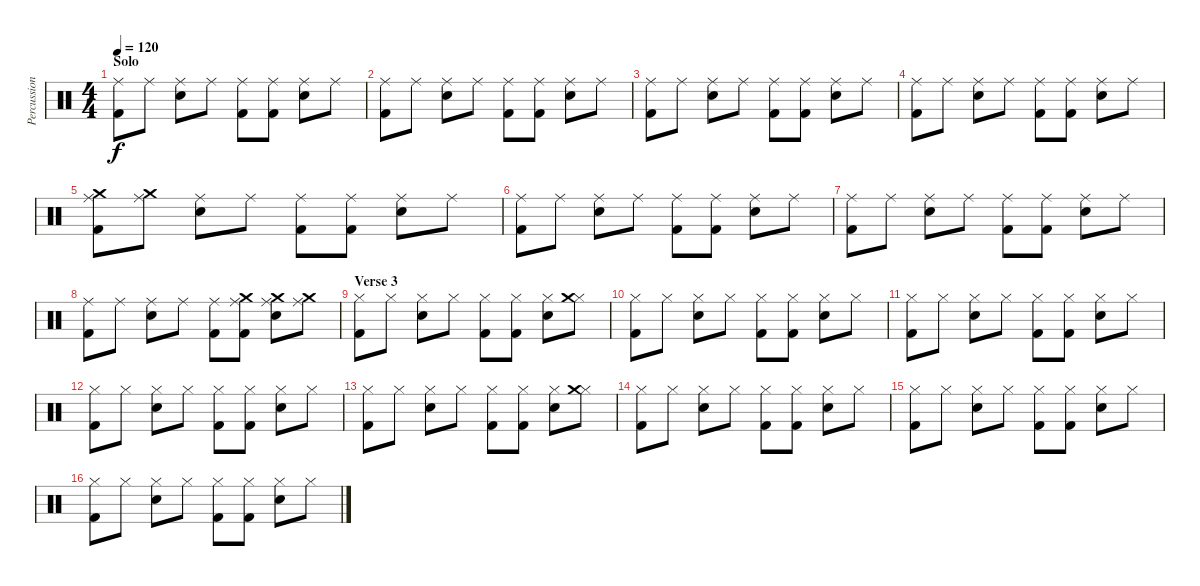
\track ("Percussion" "Percussion") {instrument percussion}
\staff {score}
\articulation defaults
\ts (4 4)
\section ("" "Solo")
\tempo 120
\clef neutral
\ks c
("Ride (middle)" "Kick (hit) 2").8{dy f} "Ride (middle)".8 ("Ride (middle)" "Snare (hit) 2").8 "Ride (middle)".8 ("Ride (middle)" "Kick (hit) 2").8 ("Ride (middle)" "Kick (hit) 2").8 ("Ride (middle)" "Snare (hit) 2").8 "Ride (middle)".8 |
("Ride (middle)" "Kick (hit) 2").8 "Ride (middle)".8 ("Ride (middle)" "Snare (hit) 2").8 "Ride (middle)".8 ("Ride (middle)" "Kick (hit) 2").8 ("Ride (middle)" "Kick (hit) 2").8 ("Ride (middle)" "Snare (hit) 2").8 "Ride (middle)".8 |
("Ride (middle)" "Kick (hit) 2").8 "Ride (middle)".8 ("Ride (middle)" "Snare (hit) 2").8 "Ride (middle)".8 ("Ride (middle)" "Kick (hit) 2").8 ("Ride (middle)" "Kick (hit) 2").8 ("Ride (middle)" "Snare (hit) 2").8 "Ride (middle)".8 |
("Ride (middle)" "Kick (hit) 2").8 "Ride (middle)".8 ("Ride (middle)" "Snare (hit) 2").8 "Ride (middle)".8 ("Ride (middle)" "Kick (hit) 2").8 ("Ride (middle)" "Kick (hit) 2").8 ("Ride (middle)" "Snare (hit) 2").8 "Ride (middle)".8 |
("Ride (middle)" "Kick (hit) 2" "Crash medium (hit)").8 ("Ride (middle)" "Crash medium (hit)").8 ("Ride (middle)" "Snare (hit) 2").8 "Ride (middle)".8 ("Ride (middle)" "Kick (hit) 2").8 ("Ride (middle)" "Kick (hit) 2").8 ("Ride (middle)" "Snare (hit) 2").8 "Ride (middle)".8 |
("Ride (middle)" "Kick (hit) 2").8 "Ride (middle)".8 ("Ride (middle)" "Snare (hit) 2").8 "Ride (middle)".8 ("Ride (middle)" "Kick (hit) 2").8 ("Ride (middle)" "Kick (hit) 2").8 ("Ride (middle)" "Snare (hit) 2").8 "Ride (middle)".8 |
("Ride (middle)" "Kick (hit) 2").8 "Ride (middle)".8 ("Ride (middle)" "Snare (hit) 2").8 "Ride (middle)".8 ("Ride (middle)" "Kick (hit) 2").8 ("Ride (middle)" "Kick (hit) 2").8 ("Ride (middle)" "Snare (hit) 2").8 "Ride (middle)".8 |
("Ride (middle)" "Kick (hit) 2").8 "Ride (middle)".8 ("Ride (middle)" "Snare (hit) 2").8 "Ride (middle)".8 ("Ride (middle)" "Kick (hit) 2").8 ("Ride (middle)" "Kick (hit) 2" "Crash medium (hit)").8 ("Ride (middle)" "Snare (hit) 2" "Crash medium (hit)").8 ("Ride (middle)" "Crash medium (hit)").8 |
\section ("" "Verse 3")
("Hi-Hat (closed)" "Kick (hit) 2").8 "Hi-Hat (closed)".8 ("Hi-Hat (closed)" "Snare (hit) 2").8 "Hi-Hat (closed)".8 ("Hi-Hat (closed)" "Kick (hit) 2").8 ("Hi-Hat (closed)" "Kick (hit) 2").8 ("Hi-Hat (closed)" "Snare (hit) 2").8 ("Hi-Hat (closed)" "Crash medium (hit)").8 |
("Hi-Hat (closed)" "Kick (hit) 2").8 "Hi-Hat (closed)".8 ("Hi-Hat (closed)" "Snare (hit) 2").8 "Hi-Hat (closed)".8 ("Hi-Hat (closed)" "Kick (hit) 2").8 ("Hi-Hat (closed)" "Kick (hit) 2").8 ("Hi-Hat (closed)" "Snare (hit) 2").8 "Hi-Hat (closed)".8 |
("Hi-Hat (closed)" "Kick (hit) 2").8 "Hi-Hat (closed)".8 ("Hi-Hat (closed)" "Snare (hit) 2").8 "Hi-Hat (closed)".8 ("Hi-Hat (closed)" "Kick (hit) 2").8 ("Hi-Hat (closed)" "Kick (hit) 2").8 ("Hi-Hat (closed)" "Snare (hit) 2").8 "Hi-Hat (closed)".8 |
("Hi-Hat (closed)" "Kick (hit) 2").8 "Hi-Hat (closed)".8 ("Hi-Hat (closed)" "Snare (hit) 2").8 "Hi-Hat (closed)".8 ("Hi-Hat (closed)" "Kick (hit) 2").8 ("Hi-Hat (closed)" "Kick (hit) 2").8 ("Hi-Hat (closed)" "Snare (hit) 2").8 "Hi-Hat (closed)".8 |
("Hi-Hat (closed)" "Kick (hit) 2").8 "Hi-Hat (closed)".8 ("Hi-Hat (closed)" "Snare (hit) 2").8 "Hi-Hat (closed)".8 ("Hi-Hat (closed)" "Kick (hit) 2").8 ("Hi-Hat (closed)" "Kick (hit) 2").8 ("Hi-Hat (closed)" "Snare (hit) 2").8 ("Hi-Hat (closed)" "Crash medium (hit)").8 |
("Hi-Hat (closed)" "Kick (hit) 2").8 "Hi-Hat (closed)".8 ("Hi-Hat (closed)" "Snare (hit) 2").8 "Hi-Hat (closed)".8 ("Hi-Hat (closed)" "Kick (hit) 2").8 ("Hi-Hat (closed)" "Kick (hit) 2").8 ("Hi-Hat (closed)" "Snare (hit) 2").8 "Hi-Hat (closed)".8 |
("Hi-Hat (closed)" "Kick (hit) 2").8 "Hi-Hat (closed)".8 ("Hi-Hat (closed)" "Snare (hit) 2").8 "Hi-Hat (closed)".8 ("Hi-Hat (closed)" "Kick (hit) 2").8 ("Hi-Hat (closed)" "Kick (hit) 2").8 ("Hi-Hat (closed)" "Snare (hit) 2").8 "Hi-Hat (closed)".8 |
("Hi-Hat (closed)" "Kick (hit) 2").8 "Hi-Hat (closed)".8 ("Hi-Hat (closed)" "Snare (hit) 2").8 "Hi-Hat (closed)".8 ("Hi-Hat (closed)" "Kick (hit) 2").8 ("Hi-Hat (closed)" "Kick (hit) 2").8 ("Hi-Hat (closed)" "Snare (hit) 2").8 "Hi-Hat (closed)".8
